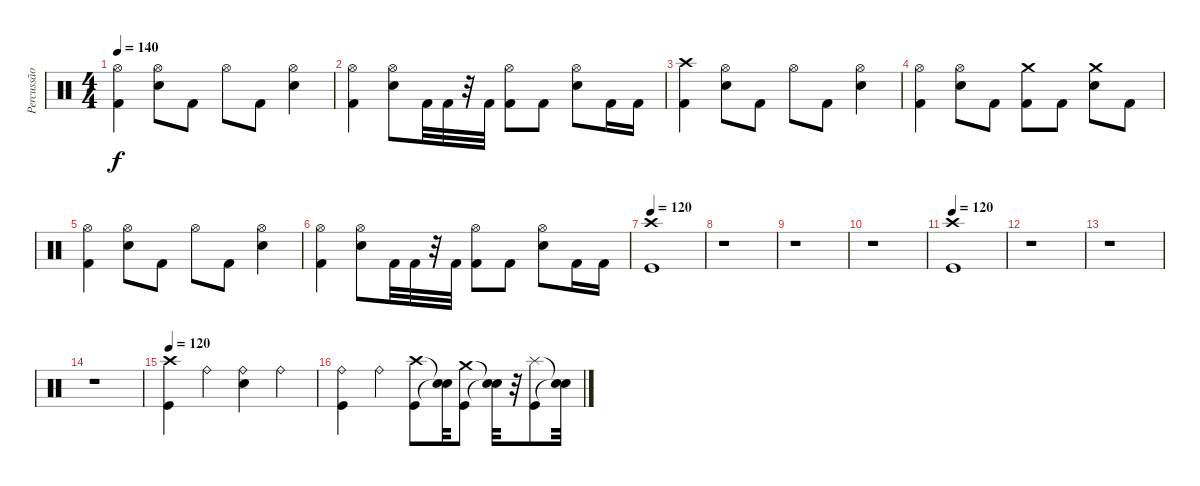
\track ("Percussão" "Percussão") {instrument percussion}
\staff {score}
\articulation defaults
\ts (4 4)
\tempo 140
\clef neutral
\ks c
("Hi-Hat (open)" "Kick (hit) 2").4{dy f} ("Hi-Hat (open)" "Electric Snare (hit)").8 "Kick (hit) 2".8 "Hi-Hat (open)".8 "Kick (hit) 2".8 ("Hi-Hat (open)" "Electric Snare (hit)").4 |
("Hi-Hat (open)" "Kick (hit) 2").4 ("Hi-Hat (open)" "Electric Snare (hit)").8 "Kick (hit) 2".32 "Kick (hit) 2".32 r.32 "Kick (hit) 2".32 ("Hi-Hat (open)" "Kick (hit) 2").8 "Kick (hit) 2".8 ("Hi-Hat (open)" "Electric Snare (hit)").8 "Kick (hit) 2".16 "Kick (hit) 2".16 |
("Crash high (hit)" "Kick (hit) 2").4 ("Hi-Hat (open)" "Electric Snare (hit)").8 "Kick (hit) 2".8 "Hi-Hat (open)".8 "Kick (hit) 2".8 ("Hi-Hat (open)" "Electric Snare (hit)").4 |
("Hi-Hat (open)" "Kick (hit) 2").4 ("Hi-Hat (open)" "Electric Snare (hit)").8 "Kick (hit) 2".8 ("Crash medium (hit)" "Kick (hit) 2").8 "Kick (hit) 2".8 ("Crash medium (hit)" "Electric Snare (hit)").8 "Kick (hit) 2".8 |
("Hi-Hat (open)" "Kick (hit) 2").4 ("Hi-Hat (open)" "Electric Snare (hit)").8 "Kick (hit) 2".8 "Hi-Hat (open)".8 "Kick (hit) 2".8 ("Hi-Hat (open)" "Electric Snare (hit)").4 |
("Hi-Hat (open)" "Kick (hit) 2").4 ("Hi-Hat (open)" "Electric Snare (hit)").8 "Kick (hit) 2".32 "Kick (hit) 2".32 r.32 "Kick (hit) 2".32 ("Hi-Hat (open)" "Kick (hit) 2").8 "Kick (hit) 2".8 ("Hi-Hat (open)" "Electric Snare (hit)").8 "Kick (hit) 2".16 "Kick (hit) 2".16 |
\tempo 120
("Crash high (hit)" "Kick (hit)").1 |
r.1 |
r.1 |
r.1 |
\tempo 120
("Crash high (hit)" "Kick (hit)").1 |
r.1 |
r.1 |
r.1 |
\tempo 120
("Crash high (hit)" "Kick (hit)").4 "Ride (bell)".4 ("Ride (bell)" "Electric Snare (hit)").4 "Ride (bell)".4 |
("Ride (bell)" "Kick (hit)").4 "Ride (bell)".4 ("Crash high (hit)" "Kick (hit)").8 ("Snare (hit)"{t} "Snare (hit)"{t}).32 ("Crash medium (hit)" "Kick (hit)").8 ("Snare (hit)"{t} "Snare (hit)"{t}).32 r.32 ("Splash (hit)" "Kick (hit)").8 ("Snare (hit)"{t} "Snare (hit)"{t}).32
